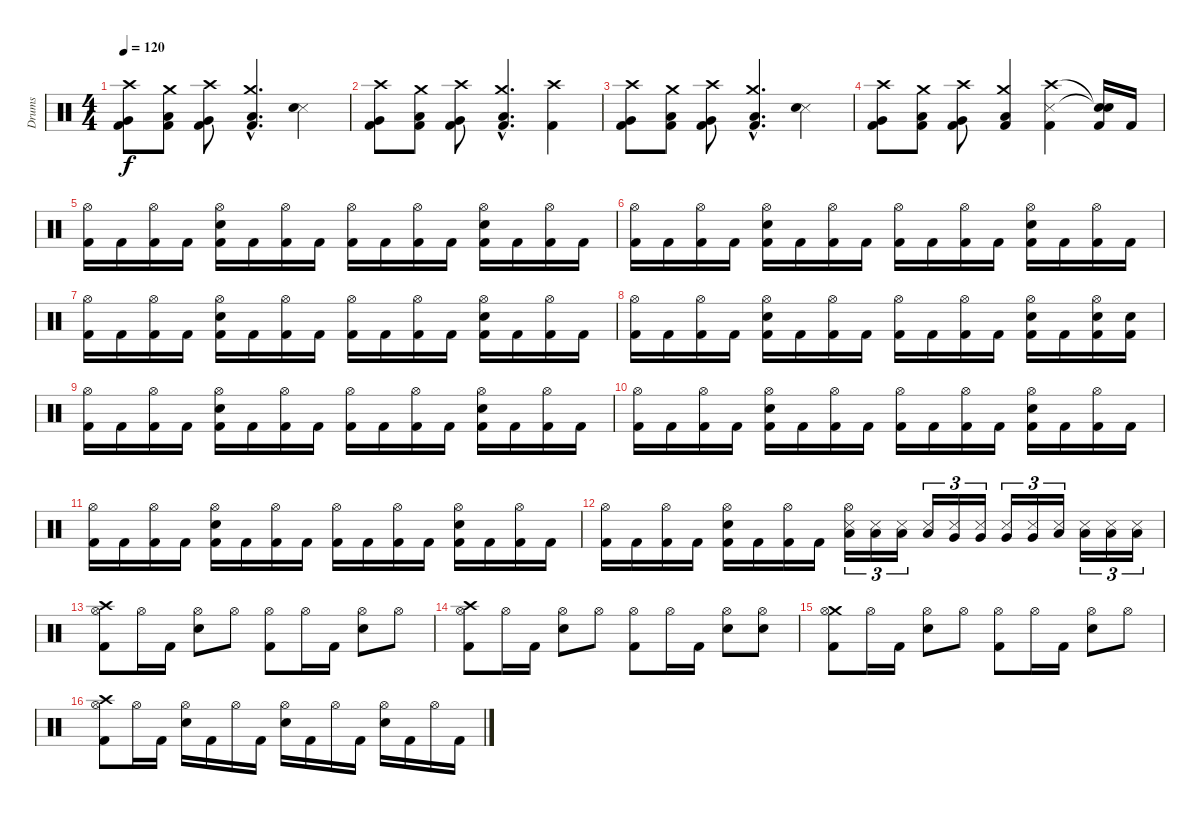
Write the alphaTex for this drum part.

\track ("Drums" "Drums") {instrument percussion}
\staff {score}
\articulation defaults
\ts (4 4)
\tempo 120
\clef neutral
\ks c
("Crash high (hit)" "Very Low Tom (hit)" "Kick (hit) 2").8{dy f} ("Crash medium (hit)" "Low Floor Tom (hit)" "Kick (hit) 2").8 ("Crash high (hit)" "Very Low Tom (hit)" "Kick (hit) 2").8 ("Crash medium (hit)"{hac} "Low Floor Tom (hit)"{hac} "Kick (hit) 2"{hac}).4{d} ("Snare (side stick) 3" "Electric Snare (hit)").4 |
("Crash high (hit)" "Very Low Tom (hit)" "Kick (hit) 2").8 ("Crash medium (hit)" "Low Floor Tom (hit)" "Kick (hit) 2").8 ("Crash high (hit)" "Very Low Tom (hit)" "Kick (hit) 2").8 ("Crash medium (hit)"{hac} "Low Floor Tom (hit)"{hac} "Kick (hit) 2"{hac}).4{d} ("Crash high (hit)" "Kick (hit) 2").4 |
("Crash high (hit)" "Very Low Tom (hit)" "Kick (hit) 2").8 ("Crash medium (hit)" "Low Floor Tom (hit)" "Kick (hit) 2").8 ("Crash high (hit)" "Very Low Tom (hit)" "Kick (hit) 2").8 ("Crash medium (hit)"{hac} "Low Floor Tom (hit)"{hac} "Kick (hit) 2"{hac}).4{d} ("Snare (side stick) 3" "Electric Snare (hit)").4 |
("Crash high (hit)" "Very Low Tom (hit)" "Kick (hit) 2").8 ("Crash medium (hit)" "Low Floor Tom (hit)" "Kick (hit) 2").8 ("Crash high (hit)" "Very Low Tom (hit)" "Kick (hit) 2").8 ("Crash medium (hit)" "Low Floor Tom (hit)" "Kick (hit) 2").4 ("Crash high (hit)" "Snare (side stick) 3" "Kick (hit) 2").4 ("Snare (hit)"{t} "Snare (hit)"{t} "Kick (hit) 2").16 "Kick (hit) 2".16 |
("Hi-Hat (open)" "Kick (hit) 2").16 "Kick (hit) 2".16 ("Hi-Hat (open)" "Kick (hit) 2").16 "Kick (hit) 2".16 ("Hi-Hat (open)" "Electric Snare (hit)" "Kick (hit) 2").16 "Kick (hit) 2".16 ("Hi-Hat (open)" "Kick (hit) 2").16 "Kick (hit) 2".16 ("Hi-Hat (open)" "Kick (hit) 2").16 "Kick (hit) 2".16 ("Hi-Hat (open)" "Kick (hit) 2").16 "Kick (hit) 2".16 ("Hi-Hat (open)" "Electric Snare (hit)" "Kick (hit) 2").16 "Kick (hit) 2".16 ("Hi-Hat (open)" "Kick (hit) 2").16 "Kick (hit) 2".16 |
("Hi-Hat (open)" "Kick (hit) 2").16 "Kick (hit) 2".16 ("Hi-Hat (open)" "Kick (hit) 2").16 "Kick (hit) 2".16 ("Hi-Hat (open)" "Electric Snare (hit)" "Kick (hit) 2").16 "Kick (hit) 2".16 ("Hi-Hat (open)" "Kick (hit) 2").16 "Kick (hit) 2".16 ("Hi-Hat (open)" "Kick (hit) 2").16 "Kick (hit) 2".16 ("Hi-Hat (open)" "Kick (hit) 2").16 "Kick (hit) 2".16 ("Hi-Hat (open)" "Electric Snare (hit)" "Kick (hit) 2").16 "Kick (hit) 2".16 ("Hi-Hat (open)" "Kick (hit) 2").16 "Kick (hit) 2".16 |
("Hi-Hat (open)" "Kick (hit) 2").16 "Kick (hit) 2".16 ("Hi-Hat (open)" "Kick (hit) 2").16 "Kick (hit) 2".16 ("Hi-Hat (open)" "Electric Snare (hit)" "Kick (hit) 2").16 "Kick (hit) 2".16 ("Hi-Hat (open)" "Kick (hit) 2").16 "Kick (hit) 2".16 ("Hi-Hat (open)" "Kick (hit) 2").16 "Kick (hit) 2".16 ("Hi-Hat (open)" "Kick (hit) 2").16 "Kick (hit) 2".16 ("Hi-Hat (open)" "Electric Snare (hit)" "Kick (hit) 2").16 "Kick (hit) 2".16 ("Hi-Hat (open)" "Kick (hit) 2").16 "Kick (hit) 2".16 |
("Hi-Hat (open)" "Kick (hit) 2").16 "Kick (hit) 2".16 ("Hi-Hat (open)" "Kick (hit) 2").16 "Kick (hit) 2".16 ("Hi-Hat (open)" "Electric Snare (hit)" "Kick (hit) 2").16 "Kick (hit) 2".16 ("Hi-Hat (open)" "Kick (hit) 2").16 "Kick (hit) 2".16 ("Hi-Hat (open)" "Kick (hit) 2").16 "Kick (hit) 2".16 ("Hi-Hat (open)" "Kick (hit) 2").16 "Kick (hit) 2".16 ("Hi-Hat (open)" "Electric Snare (hit)" "Kick (hit) 2").16 "Kick (hit) 2".16 ("Hi-Hat (open)" "Electric Snare (hit)" "Kick (hit) 2").16 ("Electric Snare (hit)" "Kick (hit) 2").16 |
("Hi-Hat (open)" "Kick (hit) 2").16 "Kick (hit) 2".16 ("Hi-Hat (open)" "Kick (hit) 2").16 "Kick (hit) 2".16 ("Hi-Hat (open)" "Electric Snare (hit)" "Kick (hit) 2").16 "Kick (hit) 2".16 ("Hi-Hat (open)" "Kick (hit) 2").16 "Kick (hit) 2".16 ("Hi-Hat (open)" "Kick (hit) 2").16 "Kick (hit) 2".16 ("Hi-Hat (open)" "Kick (hit) 2").16 "Kick (hit) 2".16 ("Hi-Hat (open)" "Electric Snare (hit)" "Kick (hit) 2").16 "Kick (hit) 2".16 ("Hi-Hat (open)" "Kick (hit) 2").16 "Kick (hit) 2".16 |
("Hi-Hat (open)" "Kick (hit) 2").16 "Kick (hit) 2".16 ("Hi-Hat (open)" "Kick (hit) 2").16 "Kick (hit) 2".16 ("Hi-Hat (open)" "Electric Snare (hit)" "Kick (hit) 2").16 "Kick (hit) 2".16 ("Hi-Hat (open)" "Kick (hit) 2").16 "Kick (hit) 2".16 ("Hi-Hat (open)" "Kick (hit) 2").16 "Kick (hit) 2".16 ("Hi-Hat (open)" "Kick (hit) 2").16 "Kick (hit) 2".16 ("Hi-Hat (open)" "Electric Snare (hit)" "Kick (hit) 2").16 "Kick (hit) 2".16 ("Hi-Hat (open)" "Kick (hit) 2").16 "Kick (hit) 2".16 |
("Hi-Hat (open)" "Kick (hit) 2").16 "Kick (hit) 2".16 ("Hi-Hat (open)" "Kick (hit) 2").16 "Kick (hit) 2".16 ("Hi-Hat (open)" "Electric Snare (hit)" "Kick (hit) 2").16 "Kick (hit) 2".16 ("Hi-Hat (open)" "Kick (hit) 2").16 "Kick (hit) 2".16 ("Hi-Hat (open)" "Kick (hit) 2").16 "Kick (hit) 2".16 ("Hi-Hat (open)" "Kick (hit) 2").16 "Kick (hit) 2".16 ("Hi-Hat (open)" "Electric Snare (hit)" "Kick (hit) 2").16 "Kick (hit) 2".16 ("Hi-Hat (open)" "Kick (hit) 2").16 "Kick (hit) 2".16 |
("Hi-Hat (open)" "Kick (hit) 2").16 "Kick (hit) 2".16 ("Hi-Hat (open)" "Kick (hit) 2").16 "Kick (hit) 2".16 ("Hi-Hat (open)" "Electric Snare (hit)" "Kick (hit) 2").16 "Kick (hit) 2".16 ("Hi-Hat (open)" "Kick (hit) 2").16 "Kick (hit) 2".16 ("Hi-Hat (open)" "Snare (side stick) 3" "Low Tom (hit)").16{tu (3 2)} ("Snare (side stick) 3" "Low Tom (hit)").16{tu (3 2)} ("Snare (side stick) 3" "Low Tom (hit)").16{tu (3 2)} ("Snare (side stick) 3" "Low Tom (hit)").16{tu (3 2)} ("Snare (side stick) 3" "Very Low Tom (hit)").16{tu (3 2)} ("Snare (side stick) 3" "Very Low Tom (hit)").16{tu (3 2)} ("Snare (side stick) 3" "Very Low Tom (hit)").16{tu (3 2)} ("Snare (side stick) 3" "Very Low Tom (hit)").16{tu (3 2)} ("Snare (side stick) 3" "Low Floor Tom (hit)").16{tu (3 2)} ("Snare (side stick) 3" "Low Floor Tom (hit)").16{tu (3 2)} ("Snare (side stick) 3" "Low Floor Tom (hit)").16{tu (3 2)} ("Snare (side stick) 3" "Low Floor Tom (hit)").16{tu (3 2)} |
("Crash high (hit)" "Hi-Hat (open)" "Kick (hit) 2").8 "Hi-Hat (open)".16 "Kick (hit) 2".16 ("Hi-Hat (open)" "Electric Snare (hit)").8 "Hi-Hat (open)".8 ("Hi-Hat (open)" "Kick (hit) 2").8 "Hi-Hat (open)".16 "Kick (hit) 2".16 ("Hi-Hat (open)" "Electric Snare (hit)").8 "Hi-Hat (open)".8 |
("Crash high (hit)" "Hi-Hat (open)" "Kick (hit) 2").8 "Hi-Hat (open)".16 "Kick (hit) 2".16 ("Hi-Hat (open)" "Electric Snare (hit)").8 "Hi-Hat (open)".8 ("Hi-Hat (open)" "Kick (hit) 2").8 "Hi-Hat (open)".16 "Kick (hit) 2".16 ("Hi-Hat (open)" "Electric Snare (hit)").8 ("Hi-Hat (open)" "Electric Snare (hit)").8 |
("Crash medium (hit)" "Hi-Hat (open)" "Kick (hit) 2").8 "Hi-Hat (open)".16 "Kick (hit) 2".16 ("Hi-Hat (open)" "Electric Snare (hit)").8 "Hi-Hat (open)".8 ("Hi-Hat (open)" "Kick (hit) 2").8 "Hi-Hat (open)".16 "Kick (hit) 2".16 ("Hi-Hat (open)" "Electric Snare (hit)").8 "Hi-Hat (open)".8 |
("Crash high (hit)" "Hi-Hat (open)" "Kick (hit) 2").8 "Hi-Hat (open)".16 "Kick (hit) 2".16 ("Hi-Hat (open)" "Electric Snare (hit)").16 "Kick (hit) 2".16 "Hi-Hat (open)".16 "Kick (hit) 2".16 ("Hi-Hat (open)" "Electric Snare (hit)").16 "Kick (hit) 2".16 "Hi-Hat (open)".16 "Kick (hit) 2".16 ("Hi-Hat (open)" "Electric Snare (hit)").16 "Kick (hit) 2".16 "Hi-Hat (open)".16 "Kick (hit) 2".16
